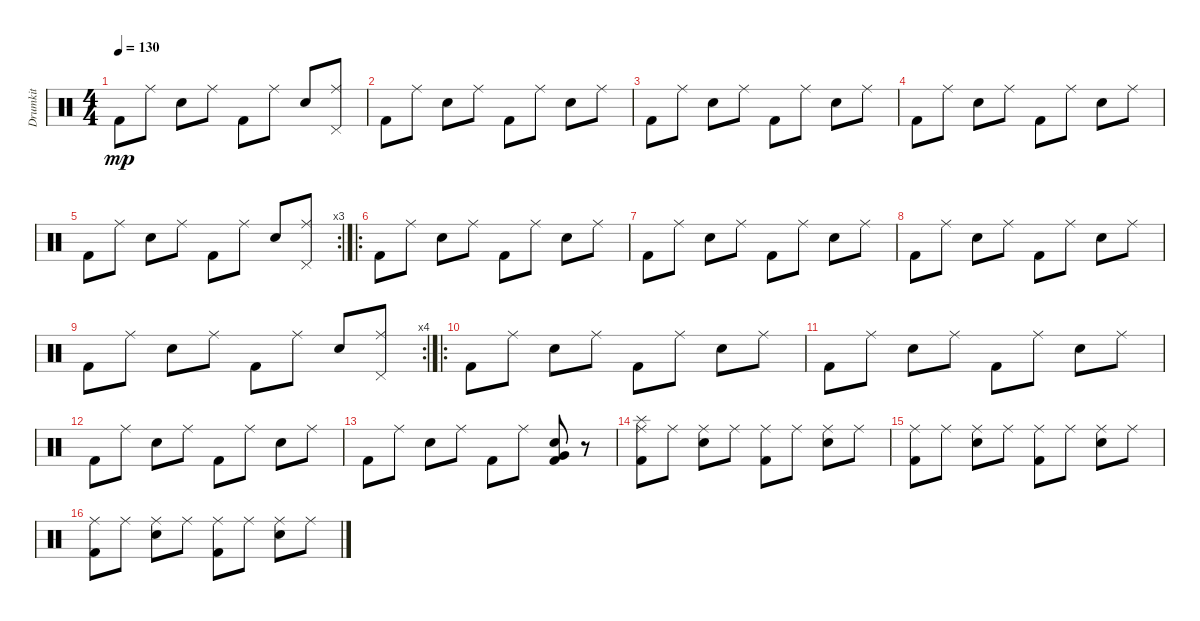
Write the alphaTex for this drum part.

\track ("Drumkit" "Drumkit") {instrument percussion}
\staff {score}
\articulation defaults
\ts (4 4)
\tempo 130
\clef neutral
\ks c "Kick (hit) 2".8{dy mp} "Ride (middle)".8 "Snare (hit) 2".8 "Ride (middle)".8 "Kick (hit) 2".8 "Ride (middle)".8 "Snare (hit) 2".8
("Ride (middle)" "Pedal Hi-Hat (hit)").8 |
"Kick (hit) 2".8 "Ride (middle)".8 "Snare (hit) 2".8 "Ride (middle)".8 "Kick (hit) 2".8 "Ride (middle)".8 "Snare (hit) 2".8 "Ride (middle)".8 |
"Kick (hit) 2".8 "Ride (middle)".8 "Snare (hit) 2".8 "Ride (middle)".8 "Kick (hit) 2".8 "Ride (middle)".8 "Snare (hit) 2".8 "Ride (middle)".8 |
"Kick (hit) 2".8 "Ride (middle)".8 "Snare (hit) 2".8 "Ride (middle)".8 "Kick (hit) 2".8 "Ride (middle)".8 "Snare (hit) 2".8 "Ride (middle)".8 |
\rc 3 "Kick (hit) 2".8 "Ride (middle)".8 "Snare (hit) 2".8 "Ride (middle)".8 "Kick (hit) 2".8 "Ride (middle)".8 "Snare (hit) 2".8
("Ride (middle)" "Pedal Hi-Hat (hit)").8 |
\ro "Kick (hit) 2".8 "Ride (middle)".8 "Snare (hit) 2".8 "Ride (middle)".8 "Kick (hit) 2".8 "Ride (middle)".8 "Snare (hit) 2".8 "Ride (middle)".8
|
"Kick (hit) 2".8 "Ride (middle)".8 "Snare (hit) 2".8 "Ride (middle)".8 "Kick (hit) 2".8 "Ride (middle)".8 "Snare (hit) 2".8 "Ride (middle)".8 |
"Kick (hit) 2".8 "Ride (middle)".8 "Snare (hit) 2".8 "Ride (middle)".8 "Kick (hit) 2".8 "Ride (middle)".8 "Snare (hit) 2".8 "Ride (middle)".8 |
\rc 4 "Kick (hit) 2".8 "Ride (middle)".8 "Snare (hit) 2".8 "Ride (middle)".8 "Kick (hit) 2".8 "Ride (middle)".8 "Snare (hit) 2".8
("Ride (middle)" "Pedal Hi-Hat (hit)").8 |
\ro "Kick (hit) 2".8 "Ride (middle)".8 "Snare (hit) 2".8 "Ride (middle)".8 "Kick (hit) 2".8 "Ride (middle)".8 "Snare (hit) 2".8 "Ride (middle)".8
|
"Kick (hit) 2".8 "Ride (middle)".8 "Snare (hit) 2".8 "Ride (middle)".8 "Kick (hit) 2".8 "Ride (middle)".8 "Snare (hit) 2".8 "Ride (middle)".8 |
"Kick (hit) 2".8 "Ride (middle)".8 "Snare (hit) 2".8 "Ride (middle)".8 "Kick (hit) 2".8 "Ride (middle)".8 "Snare (hit) 2".8 "Ride (middle)".8 |
"Kick (hit) 2".8 "Ride (middle)".8 "Snare (hit) 2".8 "Ride (middle)".8 "Kick (hit) 2".8 "Ride (middle)".8 ("Snare (hit) 2" "Kick (hit) 2" "Very Low Tom (hit)").8 r.8 |
("Kick (hit) 2" "Ride (middle)" "Splash (hit)").8 "Ride (middle)".8 ("Snare (hit) 2" "Ride (middle)").8 "Ride (middle)".8 ("Kick (hit) 2" "Ride (middle)").8 "Ride (middle)".8 ("Snare (hit) 2" "Ride (middle)").8 "Ride (middle)".8 |
("Kick (hit) 2" "Ride (middle)").8 "Ride (middle)".8 ("Snare (hit) 2" "Ride (middle)").8 "Ride (middle)".8 ("Kick (hit) 2" "Ride (middle)").8 "Ride (middle)".8 ("Snare (hit) 2" "Ride (middle)").8 "Ride (middle)".8 |
("Kick (hit) 2" "Ride (middle)").8 "Ride (middle)".8 ("Snare (hit) 2" "Ride (middle)").8 "Ride (middle)".8 ("Kick (hit) 2" "Ride (middle)").8 "Ride (middle)".8 ("Snare (hit) 2" "Ride (middle)").8 "Ride (middle)".8
